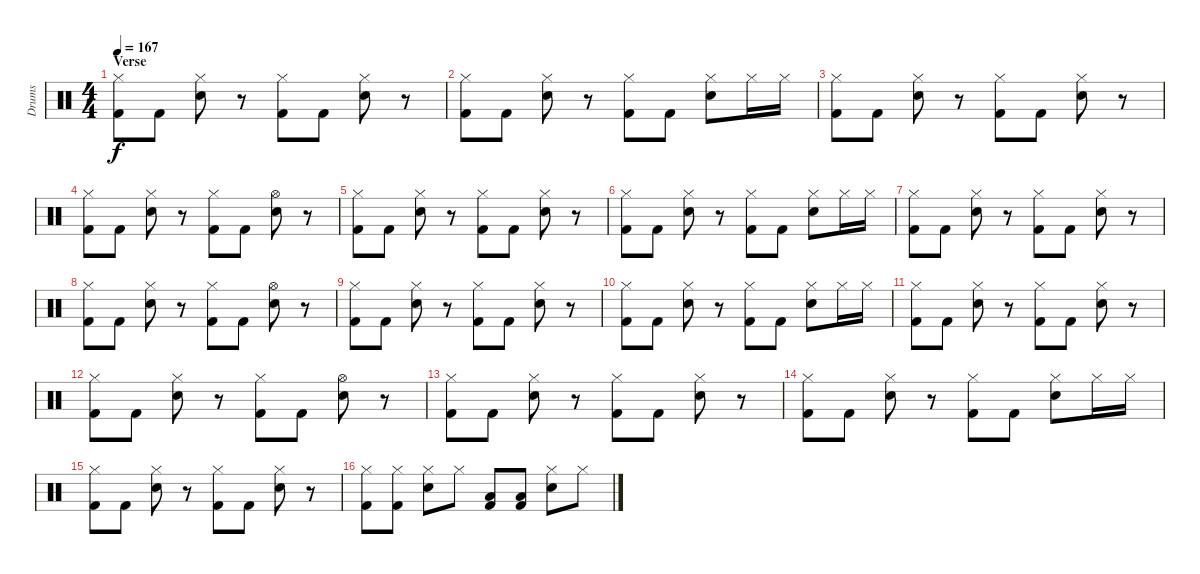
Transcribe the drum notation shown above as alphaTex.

\track ("Drums" "Drums") {instrument percussion}
\staff {score}
\articulation defaults
\ts (4 4)
\section ("" "Verse")
\tempo 167
\clef neutral
\ks c
("Hi-Hat (closed)" "Kick (hit) 2").8{dy f} "Kick (hit) 2".8 ("Hi-Hat (closed)" "Electric Snare (hit)").8 r.8 ("Hi-Hat (closed)" "Kick (hit) 2").8 "Kick (hit) 2".8 ("Hi-Hat (closed)" "Electric Snare (hit)").8 r.8 |
("Hi-Hat (closed)" "Kick (hit) 2").8 "Kick (hit) 2".8 ("Hi-Hat (closed)" "Electric Snare (hit)").8 r.8 ("Hi-Hat (closed)" "Kick (hit) 2").8 "Kick (hit) 2".8 ("Hi-Hat (closed)" "Electric Snare (hit)").8 "Hi-Hat (closed)".16 "Hi-Hat (closed)".16 |
("Hi-Hat (closed)" "Kick (hit) 2").8 "Kick (hit) 2".8 ("Hi-Hat (closed)" "Electric Snare (hit)").8 r.8 ("Hi-Hat (closed)" "Kick (hit) 2").8 "Kick (hit) 2".8 ("Hi-Hat (closed)" "Electric Snare (hit)").8 r.8 |
("Hi-Hat (closed)" "Kick (hit) 2").8 "Kick (hit) 2".8 ("Hi-Hat (closed)" "Electric Snare (hit)").8 r.8 ("Hi-Hat (closed)" "Kick (hit) 2").8 "Kick (hit) 2".8 ("Hi-Hat (open)" "Electric Snare (hit)").8 r.8 |
("Hi-Hat (closed)" "Kick (hit) 2").8 "Kick (hit) 2".8 ("Hi-Hat (closed)" "Electric Snare (hit)").8 r.8 ("Hi-Hat (closed)" "Kick (hit) 2").8 "Kick (hit) 2".8 ("Hi-Hat (closed)" "Electric Snare (hit)").8 r.8 |
("Hi-Hat (closed)" "Kick (hit) 2").8 "Kick (hit) 2".8 ("Hi-Hat (closed)" "Electric Snare (hit)").8 r.8 ("Hi-Hat (closed)" "Kick (hit) 2").8 "Kick (hit) 2".8 ("Hi-Hat (closed)" "Electric Snare (hit)").8 "Hi-Hat (closed)".16 "Hi-Hat (closed)".16 |
("Hi-Hat (closed)" "Kick (hit) 2").8 "Kick (hit) 2".8 ("Hi-Hat (closed)" "Electric Snare (hit)").8 r.8 ("Hi-Hat (closed)" "Kick (hit) 2").8 "Kick (hit) 2".8 ("Hi-Hat (closed)" "Electric Snare (hit)").8 r.8 |
("Hi-Hat (closed)" "Kick (hit) 2").8 "Kick (hit) 2".8 ("Hi-Hat (closed)" "Electric Snare (hit)").8 r.8 ("Hi-Hat (closed)" "Kick (hit) 2").8 "Kick (hit) 2".8 ("Hi-Hat (open)" "Electric Snare (hit)").8 r.8 |
("Hi-Hat (closed)" "Kick (hit) 2").8 "Kick (hit) 2".8 ("Hi-Hat (closed)" "Electric Snare (hit)").8 r.8 ("Hi-Hat (closed)" "Kick (hit) 2").8 "Kick (hit) 2".8 ("Hi-Hat (closed)" "Electric Snare (hit)").8 r.8 |
("Hi-Hat (closed)" "Kick (hit) 2").8 "Kick (hit) 2".8 ("Hi-Hat (closed)" "Electric Snare (hit)").8 r.8 ("Hi-Hat (closed)" "Kick (hit) 2").8 "Kick (hit) 2".8 ("Hi-Hat (closed)" "Electric Snare (hit)").8 "Hi-Hat (closed)".16 "Hi-Hat (closed)".16 |
("Hi-Hat (closed)" "Kick (hit) 2").8 "Kick (hit) 2".8 ("Hi-Hat (closed)" "Electric Snare (hit)").8 r.8 ("Hi-Hat (closed)" "Kick (hit) 2").8 "Kick (hit) 2".8 ("Hi-Hat (closed)" "Electric Snare (hit)").8 r.8 |
("Hi-Hat (closed)" "Kick (hit) 2").8 "Kick (hit) 2".8 ("Hi-Hat (closed)" "Electric Snare (hit)").8 r.8 ("Hi-Hat (closed)" "Kick (hit) 2").8 "Kick (hit) 2".8 ("Hi-Hat (open)" "Electric Snare (hit)").8 r.8 |
("Hi-Hat (closed)" "Kick (hit) 2").8 "Kick (hit) 2".8 ("Hi-Hat (closed)" "Electric Snare (hit)").8 r.8 ("Hi-Hat (closed)" "Kick (hit) 2").8 "Kick (hit) 2".8 ("Hi-Hat (closed)" "Electric Snare (hit)").8 r.8 |
("Hi-Hat (closed)" "Kick (hit) 2").8 "Kick (hit) 2".8 ("Hi-Hat (closed)" "Electric Snare (hit)").8 r.8 ("Hi-Hat (closed)" "Kick (hit) 2").8 "Kick (hit) 2".8 ("Hi-Hat (closed)" "Electric Snare (hit)").8 "Hi-Hat (closed)".16 "Hi-Hat (closed)".16 |
("Hi-Hat (closed)" "Kick (hit) 2").8 "Kick (hit) 2".8 ("Hi-Hat (closed)" "Electric Snare (hit)").8 r.8 ("Hi-Hat (closed)" "Kick (hit) 2").8 "Kick (hit) 2".8 ("Hi-Hat (closed)" "Electric Snare (hit)").8 r.8 |
("Hi-Hat (closed)" "Kick (hit) 2").8 ("Hi-Hat (closed)" "Kick (hit) 2").8 ("Hi-Hat (closed)" "Electric Snare (hit)").8 "Hi-Hat (closed)".8 ("Low Tom (hit)" "Kick (hit) 2").8 ("Low Tom (hit)" "Kick (hit) 2").8 ("Hi-Hat (closed)" "Electric Snare (hit)").8 "Hi-Hat (closed)".8
